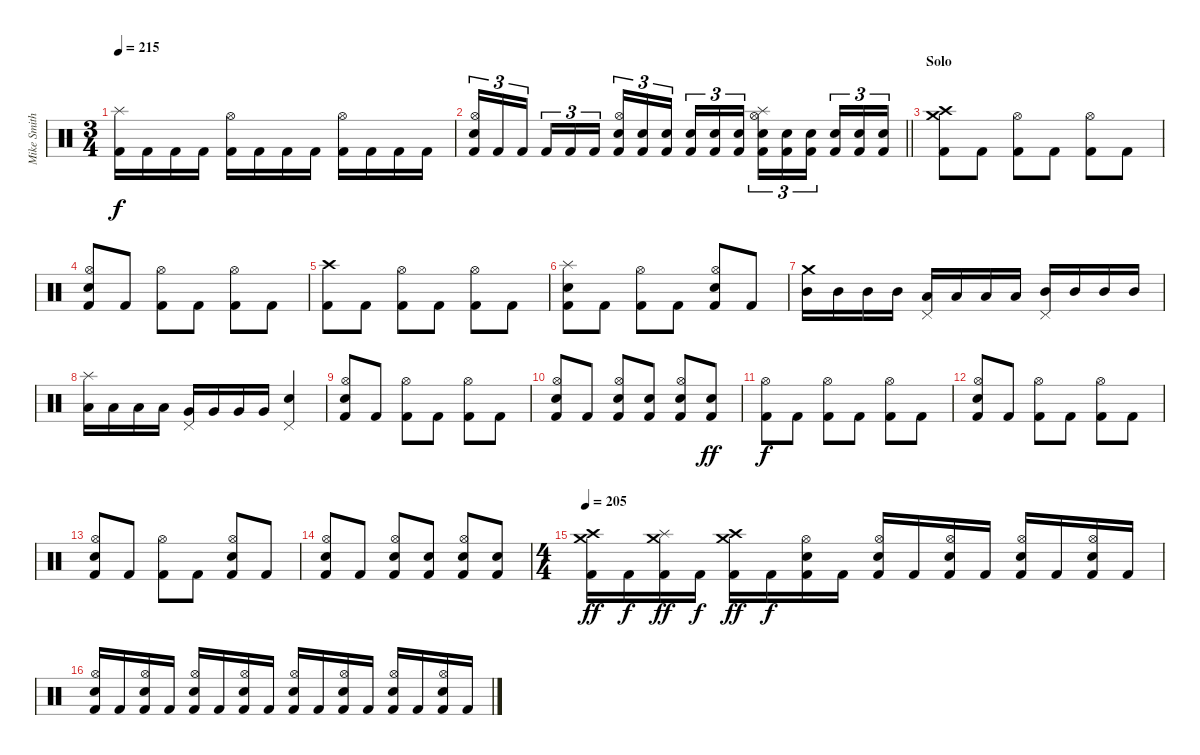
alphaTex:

\track ("Mike Smith (Suffocation)" "Mike Smith") {instrument percussion}
\staff {score}
\articulation defaults
\ts (3 4)
\tempo 215
\clef neutral
\ks c
("Splash (hit)" "Kick (hit) 2").16{dy f} "Kick (hit) 2".16 "Kick (hit) 2".16 "Kick (hit) 2".16 ("Hi-Hat (open)" "Kick (hit) 2").16 "Kick (hit) 2".16 "Kick (hit) 2".16 "Kick (hit) 2".16 ("Hi-Hat (open)" "Kick (hit) 2").16 "Kick (hit) 2".16 "Kick (hit) 2".16 "Kick (hit) 2".16 |
\barLineRight lightlight
("Hi-Hat (open)" "Snare (hit) 2" "Kick (hit) 2").16{tu (3 2)} "Kick (hit) 2".16{tu (3 2)} "Kick (hit) 2".16{tu (3 2) beam splitsecondary} "Kick (hit) 2".16{tu (3 2)} "Kick (hit) 2".16{tu (3 2)} "Kick (hit) 2".16{tu (3 2)} ("Hi-Hat (open)" "Snare (hit) 2" "Kick (hit) 2").16{tu (3 2)} ("Snare (hit) 2" "Kick (hit) 2").16{tu (3 2)} ("Snare (hit) 2" "Kick (hit) 2").16{tu (3 2) beam splitsecondary} ("Snare (hit) 2" "Kick (hit) 2").16{tu (3 2)} ("Snare (hit) 2" "Kick (hit) 2").16{tu (3 2)} ("Snare (hit) 2" "Kick (hit) 2").16{tu (3 2)} ("Hi-Hat (open)" "Splash (hit)" "Snare (hit) 2" "Kick (hit) 2").16{tu (3 2)} ("Snare (hit) 2" "Kick (hit) 2").16{tu (3 2)} ("Snare (hit) 2" "Kick (hit) 2").16{tu (3 2) beam splitsecondary} ("Snare (hit) 2" "Kick (hit) 2").16{tu (3 2)} ("Snare (hit) 2" "Kick (hit) 2").16{tu (3 2)} ("Snare (hit) 2" "Kick (hit) 2").16{tu (3 2)} |
\section ("" "Solo")
("Crash high (hit)" "Crash medium (hit)" "Kick (hit) 2").8 "Kick (hit) 2".8 ("Hi-Hat (open)" "Kick (hit) 2").8 "Kick (hit) 2".8 ("Hi-Hat (open)" "Kick (hit) 2").8 "Kick (hit) 2".8 |
("Hi-Hat (open)" "Snare (hit) 2" "Kick (hit) 2").8 "Kick (hit) 2".8 ("Hi-Hat (open)" "Kick (hit) 2").8 "Kick (hit) 2".8 ("Hi-Hat (open)" "Kick (hit) 2").8 "Kick (hit) 2".8 |
("Crash high (hit)" "Kick (hit) 2").8 "Kick (hit) 2".8 ("Hi-Hat (open)" "Kick (hit) 2").8 "Kick (hit) 2".8 ("Hi-Hat (open)" "Kick (hit) 2").8 "Kick (hit) 2".8 |
("Splash (hit)" "Snare (hit) 2" "Kick (hit) 2").8 "Kick (hit) 2".8 ("Hi-Hat (open)" "Kick (hit) 2").8 "Kick (hit) 2".8 ("Hi-Hat (open)" "Snare (hit) 2" "Kick (hit) 2").8 "Kick (hit) 2".8 |
("Crash medium (hit)" "Mid Tom (hit)").16 "Mid Tom (hit)".16 "Mid Tom (hit)".16 "Mid Tom (hit)".16 ("Pedal Hi-Hat (hit)" "Low Tom (hit)").16 "Low Tom (hit)".16 "Low Tom (hit)".16 "Low Tom (hit)".16 ("Pedal Hi-Hat (hit)" "Mid Tom (hit)").16 "Mid Tom (hit)".16 "Mid Tom (hit)".16 "Mid Tom (hit)".16 |
("Splash (hit)" "Low Tom (hit)").16 "Low Tom (hit)".16 "Low Tom (hit)".16 "Low Tom (hit)".16 ("Pedal Hi-Hat (hit)" "Very Low Tom (hit)").16 "Very Low Tom (hit)".16 "Very Low Tom (hit)".16 "Very Low Tom (hit)".16 ("Pedal Hi-Hat (hit)" "Snare (hit) 2").4 |
("Hi-Hat (open)" "Snare (hit) 2" "Kick (hit) 2").8 "Kick (hit) 2".8 ("Hi-Hat (open)" "Kick (hit) 2").8 "Kick (hit) 2".8 ("Hi-Hat (open)" "Kick (hit) 2").8 "Kick (hit) 2".8 |
("Hi-Hat (open)" "Snare (hit) 2" "Kick (hit) 2").8 "Kick (hit) 2".8 ("Hi-Hat (open)" "Snare (hit) 2" "Kick (hit) 2").8 ("Snare (hit) 2" "Kick (hit) 2").8 ("Hi-Hat (open)" "Snare (hit) 2" "Kick (hit) 2").8 ("Snare (hit) 2" "Kick (hit) 2").8{dy ff} |
("Hi-Hat (open)" "Kick (hit) 2").8{dy f} "Kick (hit) 2".8 ("Hi-Hat (open)" "Kick (hit) 2").8 "Kick (hit) 2".8 ("Hi-Hat (open)" "Kick (hit) 2").8 "Kick (hit) 2".8 |
("Hi-Hat (open)" "Snare (hit) 2" "Kick (hit) 2").8 "Kick (hit) 2".8 ("Hi-Hat (open)" "Kick (hit) 2").8 "Kick (hit) 2".8 ("Hi-Hat (open)" "Kick (hit) 2").8 "Kick (hit) 2".8 |
("Hi-Hat (open)" "Snare (hit) 2" "Kick (hit) 2").8 "Kick (hit) 2".8 ("Hi-Hat (open)" "Kick (hit) 2").8 "Kick (hit) 2".8 ("Hi-Hat (open)" "Snare (hit) 2" "Kick (hit) 2").8 "Kick (hit) 2".8 |
("Hi-Hat (open)" "Snare (hit) 2" "Kick (hit) 2").8 "Kick (hit) 2".8 ("Hi-Hat (open)" "Snare (hit) 2" "Kick (hit) 2").8 ("Snare (hit) 2" "Kick (hit) 2").8 ("Hi-Hat (open)" "Snare (hit) 2" "Kick (hit) 2").8 ("Snare (hit) 2" "Kick (hit) 2").8 |
\ts (4 4)
\tempo 205
("Crash high (hit)" "Crash medium (hit)" "Kick (hit) 2").16{dy ff volume 15} "Kick (hit) 2".16{dy f} ("Crash medium (hit)" "Splash (hit)" "Kick (hit) 2").16{dy ff} "Kick (hit) 2".16{dy f} ("Crash high (hit)" "Crash medium (hit)" "Kick (hit) 2").16{dy ff} "Kick (hit) 2".16{dy f} ("Hi-Hat (open)" "Snare (hit) 2" "Kick (hit) 2").16 "Kick (hit) 2".16 ("Hi-Hat (open)" "Snare (hit) 2" "Kick (hit) 2").16 "Kick (hit) 2".16 ("Hi-Hat (open)" "Snare (hit) 2" "Kick (hit) 2").16 "Kick (hit) 2".16 ("Hi-Hat (open)" "Snare (hit) 2" "Kick (hit) 2").16 "Kick (hit) 2".16 ("Hi-Hat (open)" "Snare (hit) 2" "Kick (hit) 2").16 "Kick (hit) 2".16 |
("Hi-Hat (open)" "Snare (hit) 2" "Kick (hit) 2").16 "Kick (hit) 2".16 ("Hi-Hat (open)" "Snare (hit) 2" "Kick (hit) 2").16 "Kick (hit) 2".16 ("Hi-Hat (open)" "Snare (hit) 2" "Kick (hit) 2").16 "Kick (hit) 2".16 ("Hi-Hat (open)" "Snare (hit) 2" "Kick (hit) 2").16 "Kick (hit) 2".16 ("Hi-Hat (open)" "Snare (hit) 2" "Kick (hit) 2").16 "Kick (hit) 2".16 ("Hi-Hat (open)" "Snare (hit) 2" "Kick (hit) 2").16 "Kick (hit) 2".16 ("Hi-Hat (open)" "Snare (hit) 2" "Kick (hit) 2").16 "Kick (hit) 2".16 ("Hi-Hat (open)" "Snare (hit) 2" "Kick (hit) 2").16 "Kick (hit) 2".16
